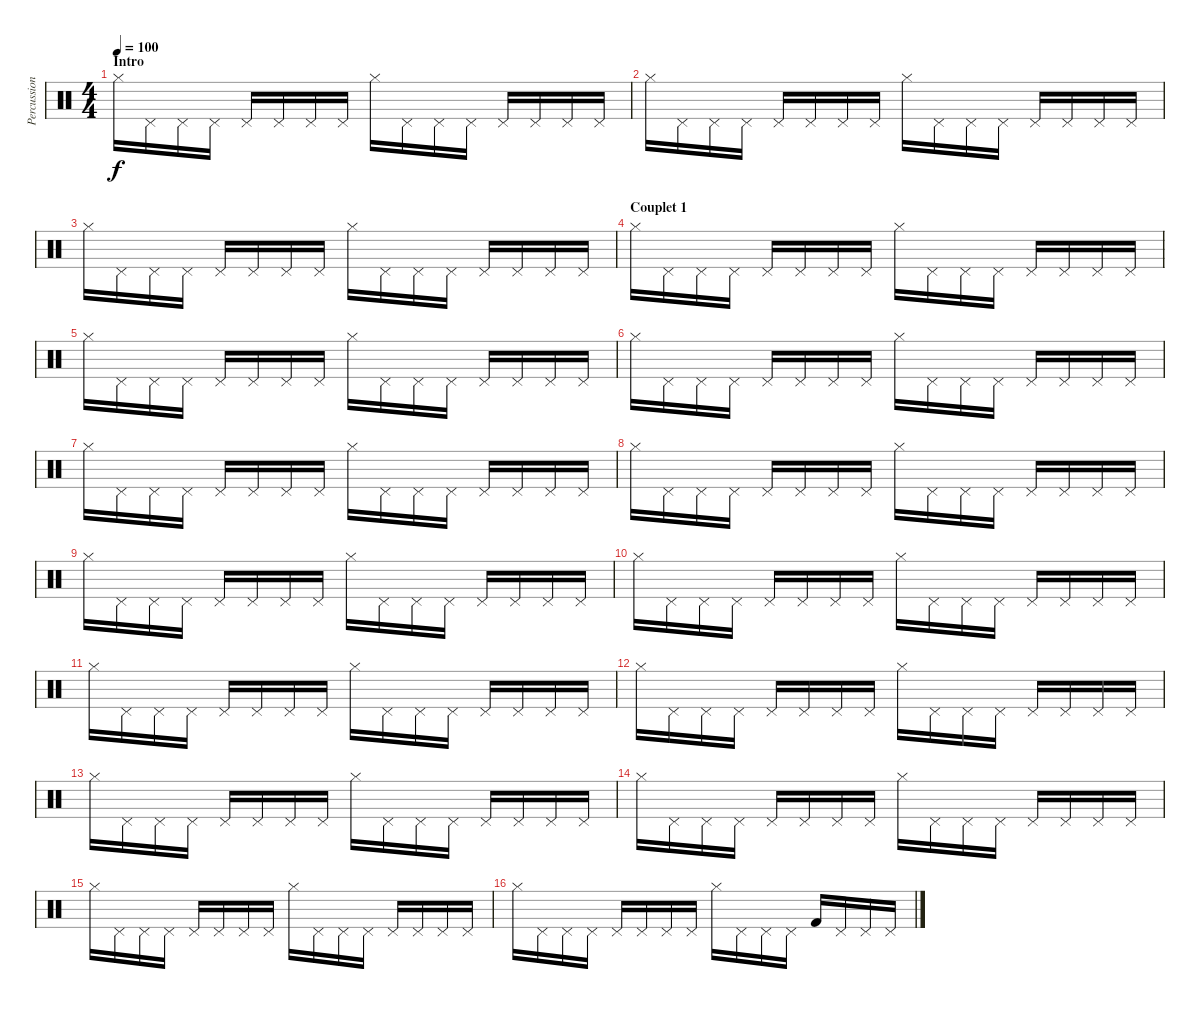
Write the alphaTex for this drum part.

\track ("Percussions" "Percussion") {instrument percussion}
\staff {score}
\articulation defaults
\ts (4 4)
\section ("" "Intro")
\tempo 100
\clef neutral
\ks c "Hi-Hat (closed)".16{dy f} "Pedal Hi-Hat (hit)".16 "Pedal Hi-Hat (hit)".16 "Pedal Hi-Hat (hit)".16 "Pedal Hi-Hat (hit)".16 "Pedal Hi-Hat (hit)".16 "Pedal Hi-Hat (hit)".16 "Pedal Hi-Hat (hit)".16 "Hi-Hat (closed)".16 "Pedal Hi-Hat (hit)".16 "Pedal Hi-Hat (hit)".16 "Pedal Hi-Hat (hit)".16 "Pedal Hi-Hat (hit)".16 "Pedal Hi-Hat (hit)".16 "Pedal Hi-Hat (hit)".16 "Pedal Hi-Hat (hit)".16
|
"Hi-Hat (closed)".16 "Pedal Hi-Hat (hit)".16 "Pedal Hi-Hat (hit)".16 "Pedal Hi-Hat (hit)".16 "Pedal Hi-Hat (hit)".16 "Pedal Hi-Hat (hit)".16 "Pedal Hi-Hat (hit)".16 "Pedal Hi-Hat (hit)".16 "Hi-Hat (closed)".16 "Pedal Hi-Hat (hit)".16 "Pedal Hi-Hat (hit)".16 "Pedal Hi-Hat (hit)".16 "Pedal Hi-Hat (hit)".16 "Pedal Hi-Hat (hit)".16 "Pedal Hi-Hat (hit)".16 "Pedal Hi-Hat (hit)".16 |
"Hi-Hat (closed)".16 "Pedal Hi-Hat (hit)".16 "Pedal Hi-Hat (hit)".16 "Pedal Hi-Hat (hit)".16 "Pedal Hi-Hat (hit)".16 "Pedal Hi-Hat (hit)".16 "Pedal Hi-Hat (hit)".16 "Pedal Hi-Hat (hit)".16 "Hi-Hat (closed)".16 "Pedal Hi-Hat (hit)".16 "Pedal Hi-Hat (hit)".16 "Pedal Hi-Hat (hit)".16 "Pedal Hi-Hat (hit)".16 "Pedal Hi-Hat (hit)".16 "Pedal Hi-Hat (hit)".16 "Pedal Hi-Hat (hit)".16 |
\section ("" "Couplet 1")
"Hi-Hat (closed)".16 "Pedal Hi-Hat (hit)".16 "Pedal Hi-Hat (hit)".16 "Pedal Hi-Hat (hit)".16 "Pedal Hi-Hat (hit)".16 "Pedal Hi-Hat (hit)".16 "Pedal Hi-Hat (hit)".16 "Pedal Hi-Hat (hit)".16 "Hi-Hat (closed)".16 "Pedal Hi-Hat (hit)".16 "Pedal Hi-Hat (hit)".16 "Pedal Hi-Hat (hit)".16 "Pedal Hi-Hat (hit)".16 "Pedal Hi-Hat (hit)".16 "Pedal Hi-Hat (hit)".16 "Pedal Hi-Hat (hit)".16 |
"Hi-Hat (closed)".16 "Pedal Hi-Hat (hit)".16 "Pedal Hi-Hat (hit)".16 "Pedal Hi-Hat (hit)".16 "Pedal Hi-Hat (hit)".16 "Pedal Hi-Hat (hit)".16 "Pedal Hi-Hat (hit)".16 "Pedal Hi-Hat (hit)".16 "Hi-Hat (closed)".16 "Pedal Hi-Hat (hit)".16 "Pedal Hi-Hat (hit)".16 "Pedal Hi-Hat (hit)".16 "Pedal Hi-Hat (hit)".16 "Pedal Hi-Hat (hit)".16 "Pedal Hi-Hat (hit)".16 "Pedal Hi-Hat (hit)".16 |
"Hi-Hat (closed)".16 "Pedal Hi-Hat (hit)".16 "Pedal Hi-Hat (hit)".16 "Pedal Hi-Hat (hit)".16 "Pedal Hi-Hat (hit)".16 "Pedal Hi-Hat (hit)".16 "Pedal Hi-Hat (hit)".16 "Pedal Hi-Hat (hit)".16 "Hi-Hat (closed)".16 "Pedal Hi-Hat (hit)".16 "Pedal Hi-Hat (hit)".16 "Pedal Hi-Hat (hit)".16 "Pedal Hi-Hat (hit)".16 "Pedal Hi-Hat (hit)".16 "Pedal Hi-Hat (hit)".16 "Pedal Hi-Hat (hit)".16 |
"Hi-Hat (closed)".16 "Pedal Hi-Hat (hit)".16 "Pedal Hi-Hat (hit)".16 "Pedal Hi-Hat (hit)".16 "Pedal Hi-Hat (hit)".16 "Pedal Hi-Hat (hit)".16 "Pedal Hi-Hat (hit)".16 "Pedal Hi-Hat (hit)".16 "Hi-Hat (closed)".16 "Pedal Hi-Hat (hit)".16 "Pedal Hi-Hat (hit)".16 "Pedal Hi-Hat (hit)".16 "Pedal Hi-Hat (hit)".16 "Pedal Hi-Hat (hit)".16 "Pedal Hi-Hat (hit)".16 "Pedal Hi-Hat (hit)".16 |
"Hi-Hat (closed)".16 "Pedal Hi-Hat (hit)".16 "Pedal Hi-Hat (hit)".16 "Pedal Hi-Hat (hit)".16 "Pedal Hi-Hat (hit)".16 "Pedal Hi-Hat (hit)".16 "Pedal Hi-Hat (hit)".16 "Pedal Hi-Hat (hit)".16 "Hi-Hat (closed)".16 "Pedal Hi-Hat (hit)".16 "Pedal Hi-Hat (hit)".16 "Pedal Hi-Hat (hit)".16 "Pedal Hi-Hat (hit)".16 "Pedal Hi-Hat (hit)".16 "Pedal Hi-Hat (hit)".16 "Pedal Hi-Hat (hit)".16 |
"Hi-Hat (closed)".16 "Pedal Hi-Hat (hit)".16 "Pedal Hi-Hat (hit)".16 "Pedal Hi-Hat (hit)".16 "Pedal Hi-Hat (hit)".16 "Pedal Hi-Hat (hit)".16 "Pedal Hi-Hat (hit)".16 "Pedal Hi-Hat (hit)".16 "Hi-Hat (closed)".16 "Pedal Hi-Hat (hit)".16 "Pedal Hi-Hat (hit)".16 "Pedal Hi-Hat (hit)".16 "Pedal Hi-Hat (hit)".16 "Pedal Hi-Hat (hit)".16 "Pedal Hi-Hat (hit)".16 "Pedal Hi-Hat (hit)".16 |
"Hi-Hat (closed)".16 "Pedal Hi-Hat (hit)".16 "Pedal Hi-Hat (hit)".16 "Pedal Hi-Hat (hit)".16 "Pedal Hi-Hat (hit)".16 "Pedal Hi-Hat (hit)".16 "Pedal Hi-Hat (hit)".16 "Pedal Hi-Hat (hit)".16 "Hi-Hat (closed)".16 "Pedal Hi-Hat (hit)".16 "Pedal Hi-Hat (hit)".16 "Pedal Hi-Hat (hit)".16 "Pedal Hi-Hat (hit)".16 "Pedal Hi-Hat (hit)".16 "Pedal Hi-Hat (hit)".16 "Pedal Hi-Hat (hit)".16 |
"Hi-Hat (closed)".16 "Pedal Hi-Hat (hit)".16 "Pedal Hi-Hat (hit)".16 "Pedal Hi-Hat (hit)".16 "Pedal Hi-Hat (hit)".16 "Pedal Hi-Hat (hit)".16 "Pedal Hi-Hat (hit)".16 "Pedal Hi-Hat (hit)".16 "Hi-Hat (closed)".16 "Pedal Hi-Hat (hit)".16 "Pedal Hi-Hat (hit)".16 "Pedal Hi-Hat (hit)".16 "Pedal Hi-Hat (hit)".16 "Pedal Hi-Hat (hit)".16 "Pedal Hi-Hat (hit)".16 "Pedal Hi-Hat (hit)".16 |
"Hi-Hat (closed)".16 "Pedal Hi-Hat (hit)".16 "Pedal Hi-Hat (hit)".16 "Pedal Hi-Hat (hit)".16 "Pedal Hi-Hat (hit)".16 "Pedal Hi-Hat (hit)".16 "Pedal Hi-Hat (hit)".16 "Pedal Hi-Hat (hit)".16 "Hi-Hat (closed)".16 "Pedal Hi-Hat (hit)".16 "Pedal Hi-Hat (hit)".16 "Pedal Hi-Hat (hit)".16 "Pedal Hi-Hat (hit)".16 "Pedal Hi-Hat (hit)".16 "Pedal Hi-Hat (hit)".16 "Pedal Hi-Hat (hit)".16 |
"Hi-Hat (closed)".16 "Pedal Hi-Hat (hit)".16 "Pedal Hi-Hat (hit)".16 "Pedal Hi-Hat (hit)".16 "Pedal Hi-Hat (hit)".16 "Pedal Hi-Hat (hit)".16 "Pedal Hi-Hat (hit)".16 "Pedal Hi-Hat (hit)".16 "Hi-Hat (closed)".16 "Pedal Hi-Hat (hit)".16 "Pedal Hi-Hat (hit)".16 "Pedal Hi-Hat (hit)".16 "Pedal Hi-Hat (hit)".16 "Pedal Hi-Hat (hit)".16 "Pedal Hi-Hat (hit)".16 "Pedal Hi-Hat (hit)".16 |
"Hi-Hat (closed)".16 "Pedal Hi-Hat (hit)".16 "Pedal Hi-Hat (hit)".16 "Pedal Hi-Hat (hit)".16 "Pedal Hi-Hat (hit)".16 "Pedal Hi-Hat (hit)".16 "Pedal Hi-Hat (hit)".16 "Pedal Hi-Hat (hit)".16 "Hi-Hat (closed)".16 "Pedal Hi-Hat (hit)".16 "Pedal Hi-Hat (hit)".16 "Pedal Hi-Hat (hit)".16 "Pedal Hi-Hat (hit)".16 "Pedal Hi-Hat (hit)".16 "Pedal Hi-Hat (hit)".16 "Pedal Hi-Hat (hit)".16 |
"Hi-Hat (closed)".16 "Pedal Hi-Hat (hit)".16 "Pedal Hi-Hat (hit)".16 "Pedal Hi-Hat (hit)".16 "Pedal Hi-Hat (hit)".16 "Pedal Hi-Hat (hit)".16 "Pedal Hi-Hat (hit)".16 "Pedal Hi-Hat (hit)".16 "Hi-Hat (closed)".16 "Pedal Hi-Hat (hit)".16 "Pedal Hi-Hat (hit)".16 "Pedal Hi-Hat (hit)".16 "Pedal Hi-Hat (hit)".16 "Pedal Hi-Hat (hit)".16 "Pedal Hi-Hat (hit)".16 "Pedal Hi-Hat (hit)".16 |
"Hi-Hat (closed)".16 "Pedal Hi-Hat (hit)".16 "Pedal Hi-Hat (hit)".16 "Pedal Hi-Hat (hit)".16 "Pedal Hi-Hat (hit)".16 "Pedal Hi-Hat (hit)".16 "Pedal Hi-Hat (hit)".16 "Pedal Hi-Hat (hit)".16 "Hi-Hat (closed)".16 "Pedal Hi-Hat (hit)".16 "Pedal Hi-Hat (hit)".16 "Pedal Hi-Hat (hit)".16 "Kick (hit) 2".16 "Pedal Hi-Hat (hit)".16 "Pedal Hi-Hat (hit)".16 "Pedal Hi-Hat (hit)".16
